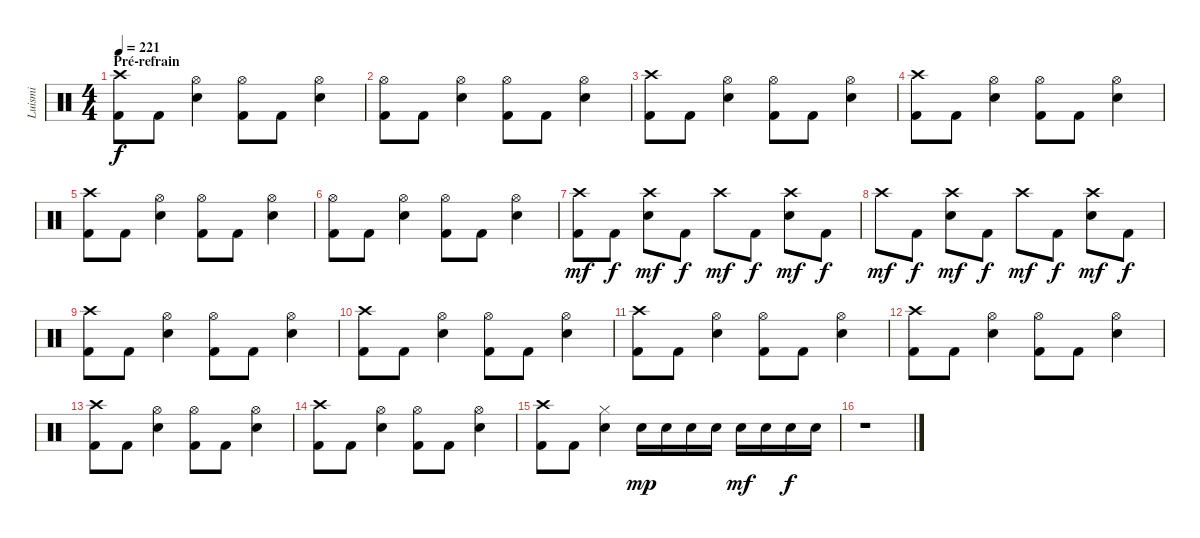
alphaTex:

\track ("Luismi" "Luismi") {instrument percussion}
\staff {score}
\articulation defaults
\ts (4 4)
\section ("" "Pré-refrain")
\tempo 221
\clef neutral
\ks c
("Crash high (hit)" "Kick (hit) 2").8{dy f} "Kick (hit) 2".8 ("Hi-Hat (open)" "Snare (hit) 2").4 ("Hi-Hat (open)" "Kick (hit) 2").8 "Kick (hit) 2".8 ("Hi-Hat (open)" "Snare (hit) 2").4 |
("Hi-Hat (open)" "Kick (hit) 2").8 "Kick (hit) 2".8 ("Hi-Hat (open)" "Snare (hit) 2").4 ("Hi-Hat (open)" "Kick (hit) 2").8 "Kick (hit) 2".8 ("Hi-Hat (open)" "Snare (hit) 2").4 |
("Crash high (hit)" "Kick (hit) 2").8 "Kick (hit) 2".8 ("Hi-Hat (open)" "Snare (hit) 2").4 ("Hi-Hat (open)" "Kick (hit) 2").8 "Kick (hit) 2".8 ("Hi-Hat (open)" "Snare (hit) 2").4 |
("Crash high (hit)" "Kick (hit) 2").8 "Kick (hit) 2".8 ("Hi-Hat (open)" "Snare (hit) 2").4 ("Hi-Hat (open)" "Kick (hit) 2").8 "Kick (hit) 2".8 ("Hi-Hat (open)" "Snare (hit) 2").4 |
("Crash high (hit)" "Kick (hit) 2").8 "Kick (hit) 2".8 ("Hi-Hat (open)" "Snare (hit) 2").4 ("Hi-Hat (open)" "Kick (hit) 2").8 "Kick (hit) 2".8 ("Hi-Hat (open)" "Snare (hit) 2").4 |
("Hi-Hat (open)" "Kick (hit) 2").8 "Kick (hit) 2".8 ("Hi-Hat (open)" "Snare (hit) 2").4 ("Hi-Hat (open)" "Kick (hit) 2").8 "Kick (hit) 2".8 ("Hi-Hat (open)" "Snare (hit) 2").4 |
("Crash high (hit)" "Kick (hit) 2").8{dy mf} "Kick (hit) 2".8{dy f} ("Crash high (hit)" "Snare (hit) 2").8{dy mf} "Kick (hit) 2".8{dy f} "Crash high (hit)".8{dy mf} "Kick (hit) 2".8{dy f} ("Crash high (hit)" "Snare (hit) 2").8{dy mf} "Kick (hit) 2".8{dy f} |
"Crash high (hit)".8{dy mf} "Kick (hit) 2".8{dy f} ("Crash high (hit)" "Snare (hit) 2").8{dy mf} "Kick (hit) 2".8{dy f} "Crash high (hit)".8{dy mf} "Kick (hit) 2".8{dy f} ("Crash high (hit)" "Snare (hit) 2").8{dy mf} "Kick (hit) 2".8{dy f} |
("Crash high (hit)" "Kick (hit) 2").8 "Kick (hit) 2".8 ("Hi-Hat (open)" "Snare (hit) 2").4 ("Hi-Hat (open)" "Kick (hit) 2").8 "Kick (hit) 2".8 ("Hi-Hat (open)" "Snare (hit) 2").4 |
("Crash high (hit)" "Kick (hit) 2").8 "Kick (hit) 2".8 ("Hi-Hat (open)" "Snare (hit) 2").4 ("Hi-Hat (open)" "Kick (hit) 2").8 "Kick (hit) 2".8 ("Hi-Hat (open)" "Snare (hit) 2").4 |
("Crash high (hit)" "Kick (hit) 2").8 "Kick (hit) 2".8 ("Hi-Hat (open)" "Snare (hit) 2").4 ("Hi-Hat (open)" "Kick (hit) 2").8 "Kick (hit) 2".8 ("Hi-Hat (open)" "Snare (hit) 2").4 |
("Crash high (hit)" "Kick (hit) 2").8 "Kick (hit) 2".8 ("Hi-Hat (open)" "Snare (hit) 2").4 ("Hi-Hat (open)" "Kick (hit) 2").8 "Kick (hit) 2".8 ("Hi-Hat (open)" "Snare (hit) 2").4 |
("Crash high (hit)" "Kick (hit) 2").8 "Kick (hit) 2".8 ("Hi-Hat (open)" "Snare (hit) 2").4 ("Hi-Hat (open)" "Kick (hit) 2").8 "Kick (hit) 2".8 ("Hi-Hat (open)" "Snare (hit) 2").4 |
("Crash high (hit)" "Kick (hit) 2").8 "Kick (hit) 2".8 ("Hi-Hat (open)" "Snare (hit) 2").4 ("Hi-Hat (open)" "Kick (hit) 2").8 "Kick (hit) 2".8 ("Hi-Hat (open)" "Snare (hit) 2").4 |
("Crash high (hit)" "Kick (hit) 2").8 "Kick (hit) 2".8 ("Hi-Hat (closed)" "Snare (hit) 2").4 "Snare (hit) 2".16{dy mp} "Snare (hit) 2".16 "Snare (hit) 2".16 "Snare (hit) 2".16 "Snare (hit) 2".16{dy mf} "Snare (hit) 2".16 "Snare (hit) 2".16{dy f} "Snare (hit) 2".16 |
r.1
